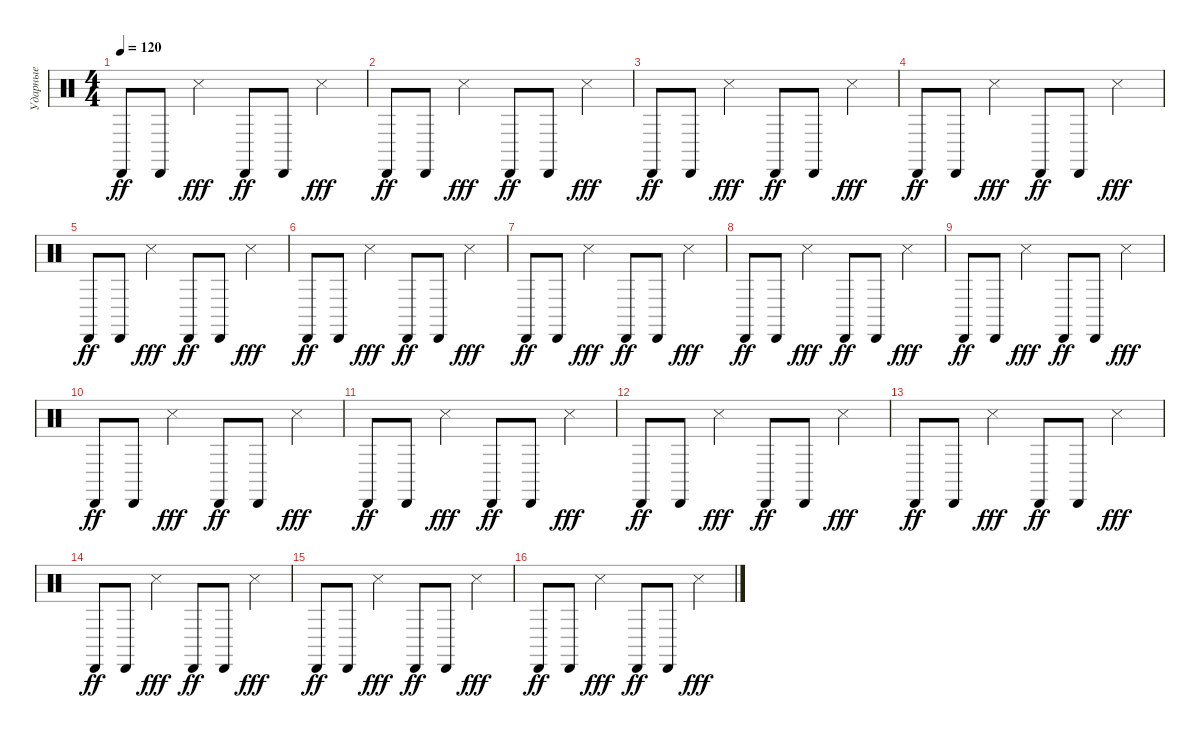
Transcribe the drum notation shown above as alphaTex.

\track ("Ударные" "Ударные") {instrument percussion}
\staff {score}
\articulation defaults
\ts (4 4)
\tempo 120
\clef neutral
\ks c "Cabasa (hit)".8{dy ff} "Cabasa (hit)".8 "Snare (side stick) 3".4{dy fff} "Cabasa (hit)".8{dy ff} "Cabasa (hit)".8 "Snare (side stick) 3".4{dy fff}
|
"Cabasa (hit)".8{dy ff} "Cabasa (hit)".8 "Snare (side stick) 3".4{dy fff} "Cabasa (hit)".8{dy ff} "Cabasa (hit)".8 "Snare (side stick) 3".4{dy fff} |
"Cabasa (hit)".8{dy ff} "Cabasa (hit)".8 "Snare (side stick) 3".4{dy fff} "Cabasa (hit)".8{dy ff} "Cabasa (hit)".8 "Snare (side stick) 3".4{dy fff} |
"Cabasa (hit)".8{dy ff} "Cabasa (hit)".8 "Snare (side stick) 3".4{dy fff} "Cabasa (hit)".8{dy ff} "Cabasa (hit)".8 "Snare (side stick) 3".4{dy fff} |
"Cabasa (hit)".8{dy ff} "Cabasa (hit)".8 "Snare (side stick) 3".4{dy fff} "Cabasa (hit)".8{dy ff} "Cabasa (hit)".8 "Snare (side stick) 3".4{dy fff} |
"Cabasa (hit)".8{dy ff} "Cabasa (hit)".8 "Snare (side stick) 3".4{dy fff} "Cabasa (hit)".8{dy ff} "Cabasa (hit)".8 "Snare (side stick) 3".4{dy fff} |
"Cabasa (hit)".8{dy ff} "Cabasa (hit)".8 "Snare (side stick) 3".4{dy fff} "Cabasa (hit)".8{dy ff} "Cabasa (hit)".8 "Snare (side stick) 3".4{dy fff} |
"Cabasa (hit)".8{dy ff} "Cabasa (hit)".8 "Snare (side stick) 3".4{dy fff} "Cabasa (hit)".8{dy ff} "Cabasa (hit)".8 "Snare (side stick) 3".4{dy fff} |
"Cabasa (hit)".8{dy ff} "Cabasa (hit)".8 "Snare (side stick) 3".4{dy fff} "Cabasa (hit)".8{dy ff} "Cabasa (hit)".8 "Snare (side stick) 3".4{dy fff} |
"Cabasa (hit)".8{dy ff} "Cabasa (hit)".8 "Snare (side stick) 3".4{dy fff} "Cabasa (hit)".8{dy ff} "Cabasa (hit)".8 "Snare (side stick) 3".4{dy fff} |
"Cabasa (hit)".8{dy ff} "Cabasa (hit)".8 "Snare (side stick) 3".4{dy fff} "Cabasa (hit)".8{dy ff} "Cabasa (hit)".8 "Snare (side stick) 3".4{dy fff} |
"Cabasa (hit)".8{dy ff} "Cabasa (hit)".8 "Snare (side stick) 3".4{dy fff} "Cabasa (hit)".8{dy ff} "Cabasa (hit)".8 "Snare (side stick) 3".4{dy fff} |
"Cabasa (hit)".8{dy ff} "Cabasa (hit)".8 "Snare (side stick) 3".4{dy fff} "Cabasa (hit)".8{dy ff} "Cabasa (hit)".8 "Snare (side stick) 3".4{dy fff} |
"Cabasa (hit)".8{dy ff} "Cabasa (hit)".8 "Snare (side stick) 3".4{dy fff} "Cabasa (hit)".8{dy ff} "Cabasa (hit)".8 "Snare (side stick) 3".4{dy fff} |
"Cabasa (hit)".8{dy ff} "Cabasa (hit)".8 "Snare (side stick) 3".4{dy fff} "Cabasa (hit)".8{dy ff} "Cabasa (hit)".8 "Snare (side stick) 3".4{dy fff} |
"Cabasa (hit)".8{dy ff} "Cabasa (hit)".8 "Snare (side stick) 3".4{dy fff} "Cabasa (hit)".8{dy ff} "Cabasa (hit)".8 "Snare (side stick) 3".4{dy fff}
